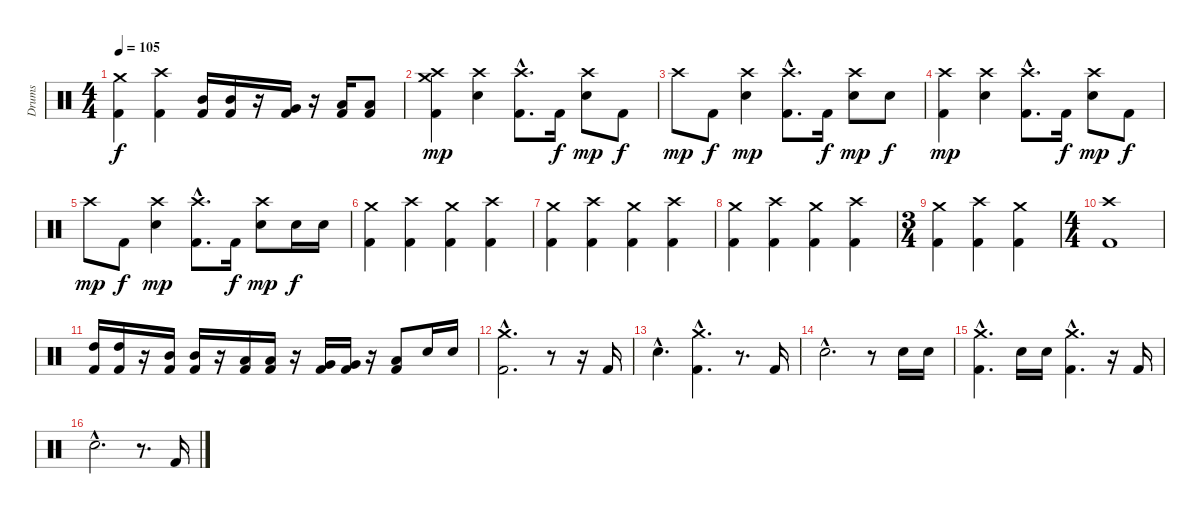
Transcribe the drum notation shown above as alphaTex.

\track ("Drums" "Drums") {instrument percussion}
\staff {score}
\articulation defaults
\ts (4 4)
\tempo 105
\clef neutral
\ks c
("Kick (hit) 2" "Crash medium (hit)").4{dy f} ("Kick (hit) 2" "Crash high (hit)").4 ("Kick (hit) 2" "Mid Tom (hit)").16 ("Kick (hit) 2" "Mid Tom (hit)").16 r.16 ("Kick (hit) 2" "Very Low Tom (hit)").16 r.16 ("Kick (hit) 2" "Low Tom (hit)").16 ("Kick (hit) 2" "Low Tom (hit)").8 |
("Kick (hit) 2" "Crash high (hit)" "Crash medium (hit)").4{dy mp} ("Electric Snare (hit)" "Crash high (hit)").4 ("Kick (hit) 2"{hac} "Crash high (hit)"{hac}).8{d} "Kick (hit) 2".16{dy f} ("Electric Snare (hit)" "Crash high (hit)").8{dy mp} "Kick (hit) 2".8{dy f} |
"Crash high (hit)".8{dy mp} "Kick (hit) 2".8{dy f} ("Electric Snare (hit)" "Crash high (hit)").4{dy mp} ("Kick (hit) 2"{hac} "Crash high (hit)"{hac}).8{d} "Kick (hit) 2".16{dy f} ("Electric Snare (hit)" "Crash high (hit)").8{dy mp} "Electric Snare (hit)".8{dy f} |
("Kick (hit) 2" "Crash high (hit)").4{dy mp} ("Electric Snare (hit)" "Crash high (hit)").4 ("Kick (hit) 2"{hac} "Crash high (hit)"{hac}).8{d} "Kick (hit) 2".16{dy f} ("Electric Snare (hit)" "Crash high (hit)").8{dy mp} "Kick (hit) 2".8{dy f} |
"Crash high (hit)".8{dy mp} "Kick (hit) 2".8{dy f} ("Electric Snare (hit)" "Crash high (hit)").4{dy mp} ("Kick (hit) 2"{hac} "Crash high (hit)"{hac}).8{d} "Kick (hit) 2".16{dy f} ("Electric Snare (hit)" "Crash high (hit)").8{dy mp} "Electric Snare (hit)".16{dy f} "Electric Snare (hit)".16 |
("Kick (hit) 2" "Crash medium (hit)").4 ("Kick (hit) 2" "Crash high (hit)").4 ("Kick (hit) 2" "Crash medium (hit)").4 ("Kick (hit) 2" "Crash high (hit)").4 |
("Kick (hit) 2" "Crash medium (hit)").4 ("Kick (hit) 2" "Crash high (hit)").4 ("Kick (hit) 2" "Crash medium (hit)").4 ("Kick (hit) 2" "Crash high (hit)").4 |
("Kick (hit) 2" "Crash medium (hit)").4 ("Kick (hit) 2" "Crash high (hit)").4 ("Kick (hit) 2" "Crash medium (hit)").4 ("Kick (hit) 2" "Crash high (hit)").4 |
\ts (3 4)
("Kick (hit) 2" "Crash medium (hit)").4 ("Kick (hit) 2" "Crash high (hit)").4 ("Kick (hit) 2" "Crash medium (hit)").4 |
\ts (4 4)
("Kick (hit) 2" "Crash high (hit)").1 |
("Kick (hit) 2" "High Tom (hit)").16 ("Kick (hit) 2" "High Tom (hit)").16 r.16 ("Kick (hit) 2" "Mid Tom (hit)").16 ("Kick (hit) 2" "Mid Tom (hit)").16 r.16 ("Kick (hit) 2" "Low Tom (hit)").16 ("Kick (hit) 2" "Low Tom (hit)").16 r.16 ("Kick (hit) 2" "Very Low Tom (hit)").16 ("Kick (hit) 2" "Very Low Tom (hit)").16 r.16 ("Kick (hit) 2" "Low Floor Tom (hit)").8 "Electric Snare (hit)".16 "Electric Snare (hit)".16 |
("Kick (hit) 2"{hac} "Crash medium (hit)"{hac}).2{d} r.8 r.16 "Kick (hit) 2".16 |
"Electric Snare (hit)"{hac}.4{d} ("Kick (hit) 2"{hac} "Crash medium (hit)"{hac}).4{d} r.8{d} "Kick (hit) 2".16 |
"Electric Snare (hit)"{hac}.2{d} r.8 "Electric Snare (hit)".16 "Electric Snare (hit)".16 |
("Kick (hit) 2"{hac} "Crash medium (hit)"{hac}).4{d} "Electric Snare (hit)".16 "Electric Snare (hit)".16 ("Kick (hit) 2"{hac} "Crash medium (hit)"{hac}).4{d} r.16 "Kick (hit) 2".16 |
"Electric Snare (hit)"{hac}.2{d} r.8{d} "Kick (hit) 2".16
